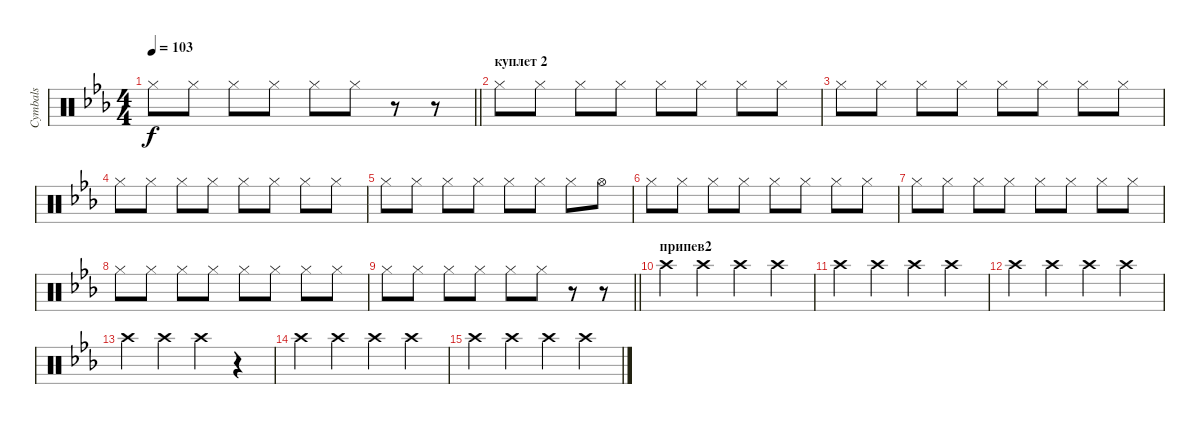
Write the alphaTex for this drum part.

\track ("Cymbals" "Cymbals") {instrument percussion}
\staff {score}
\articulation defaults
\ts (4 4)
\tempo 103
\clef neutral
\barLineRight lightlight
\ks cminor "Hi-Hat (closed)".8{dy f} "Hi-Hat (closed)".8 "Hi-Hat (closed)".8 "Hi-Hat (closed)".8 "Hi-Hat (closed)".8 "Hi-Hat (closed)".8
r.8 r.8 |
\section ("" "куплет 2")
"Hi-Hat (closed)".8 "Hi-Hat (closed)".8 "Hi-Hat (closed)".8 "Hi-Hat (closed)".8 "Hi-Hat (closed)".8 "Hi-Hat (closed)".8 "Hi-Hat (closed)".8 "Hi-Hat (closed)".8 |
"Hi-Hat (closed)".8 "Hi-Hat (closed)".8 "Hi-Hat (closed)".8 "Hi-Hat (closed)".8 "Hi-Hat (closed)".8 "Hi-Hat (closed)".8 "Hi-Hat (closed)".8 "Hi-Hat (closed)".8 |
"Hi-Hat (closed)".8 "Hi-Hat (closed)".8 "Hi-Hat (closed)".8 "Hi-Hat (closed)".8 "Hi-Hat (closed)".8 "Hi-Hat (closed)".8 "Hi-Hat (closed)".8 "Hi-Hat (closed)".8 |
"Hi-Hat (closed)".8 "Hi-Hat (closed)".8 "Hi-Hat (closed)".8 "Hi-Hat (closed)".8 "Hi-Hat (closed)".8 "Hi-Hat (closed)".8 "Hi-Hat (closed)".8 "Hi-Hat (open)".8 |
"Hi-Hat (closed)".8 "Hi-Hat (closed)".8 "Hi-Hat (closed)".8 "Hi-Hat (closed)".8 "Hi-Hat (closed)".8 "Hi-Hat (closed)".8 "Hi-Hat (closed)".8 "Hi-Hat (closed)".8 |
"Hi-Hat (closed)".8 "Hi-Hat (closed)".8 "Hi-Hat (closed)".8 "Hi-Hat (closed)".8 "Hi-Hat (closed)".8 "Hi-Hat (closed)".8 "Hi-Hat (closed)".8 "Hi-Hat (closed)".8 |
"Hi-Hat (closed)".8 "Hi-Hat (closed)".8 "Hi-Hat (closed)".8 "Hi-Hat (closed)".8 "Hi-Hat (closed)".8 "Hi-Hat (closed)".8 "Hi-Hat (closed)".8 "Hi-Hat (closed)".8 |
\barLineRight lightlight "Hi-Hat (closed)".8 "Hi-Hat (closed)".8 "Hi-Hat (closed)".8 "Hi-Hat (closed)".8 "Hi-Hat (closed)".8 "Hi-Hat (closed)".8
r.8 r.8 |
\section ("" "припев2")
"Crash high (hit)".4 "Crash high (hit)".4 "Crash high (hit)".4 "Crash high (hit)".4 |
"Crash high (hit)".4 "Crash high (hit)".4 "Crash high (hit)".4 "Crash high (hit)".4 |
"Crash high (hit)".4 "Crash high (hit)".4 "Crash high (hit)".4 "Crash high (hit)".4 |
"Crash high (hit)".4 "Crash high (hit)".4 "Crash high (hit)".4 r.4 |
"Crash high (hit)".4 "Crash high (hit)".4 "Crash high (hit)".4 "Crash high (hit)".4 |
"Crash high (hit)".4 "Crash high (hit)".4 "Crash high (hit)".4 "Crash high (hit)".4
